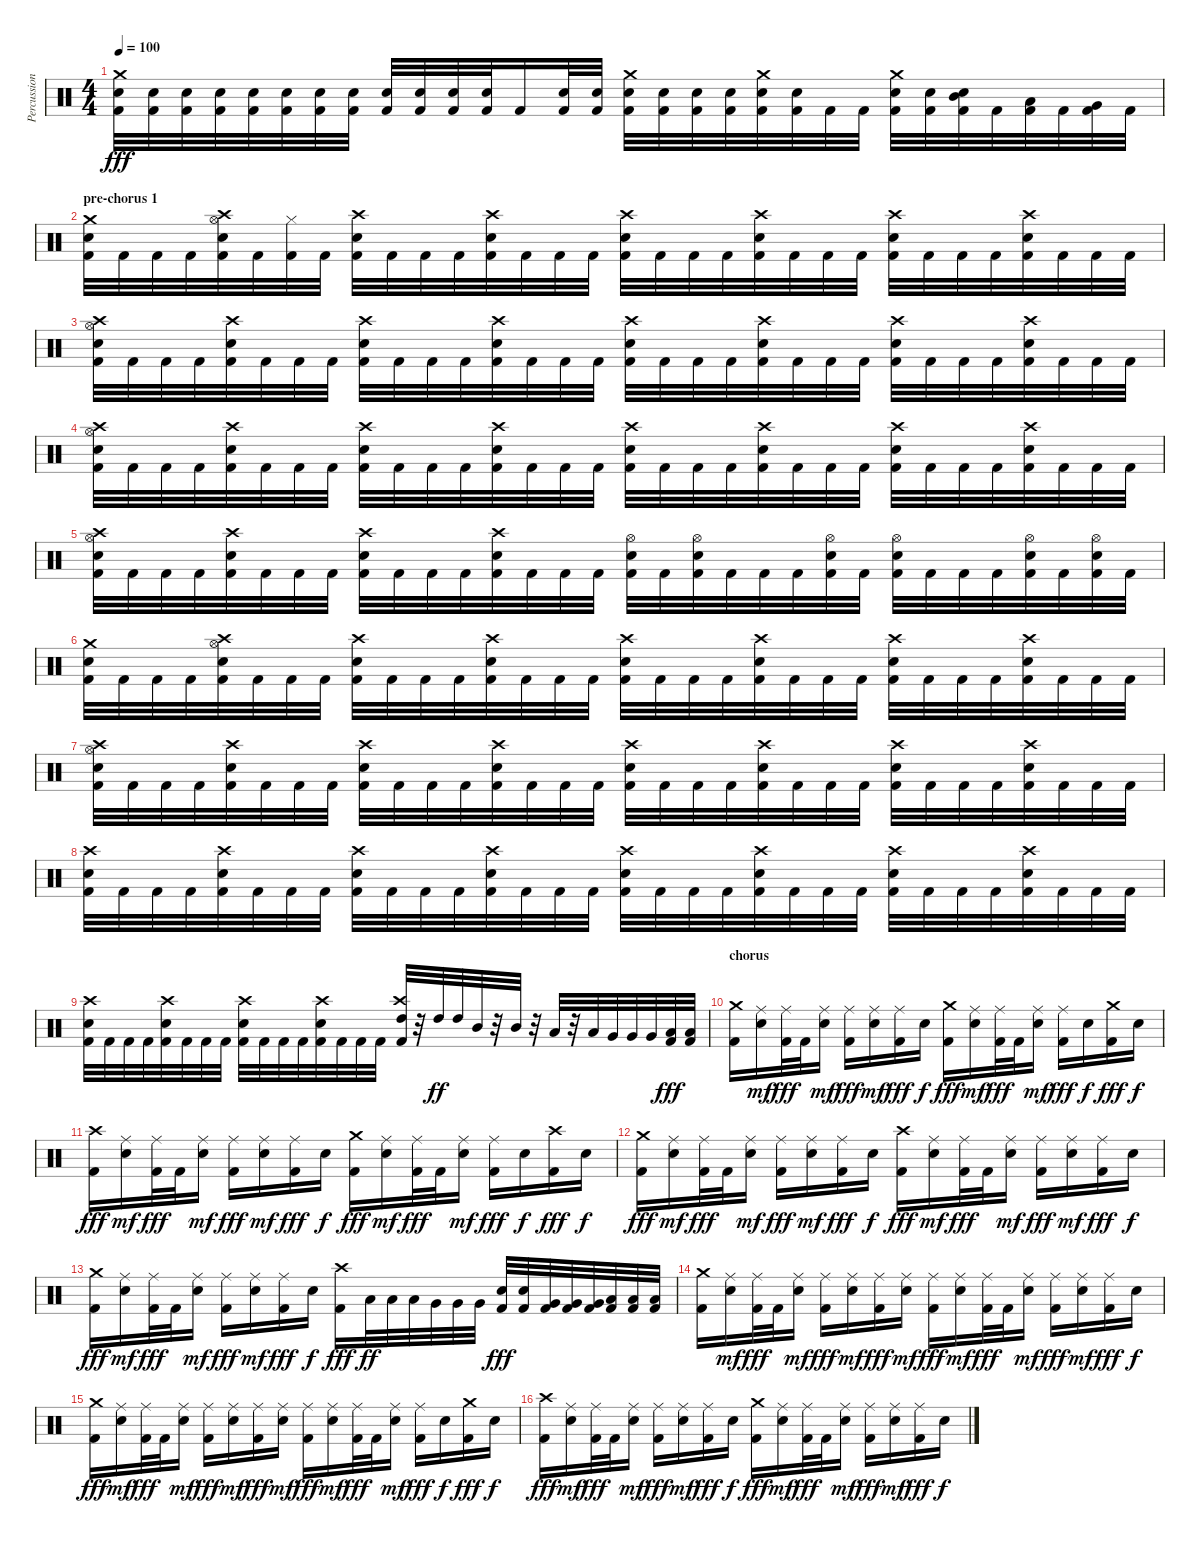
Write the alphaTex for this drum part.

\track ("Percussion" "Percussion") {instrument percussion}
\staff {score}
\articulation defaults
\ts (4 4)
\tempo 100
\clef neutral
\ks c
("Crash medium (hit)" "Snare (hit) 2" "Kick (hit) 2").32{dy fff} ("Snare (hit) 2" "Kick (hit) 2").32 ("Snare (hit) 2" "Kick (hit) 2").32 ("Snare (hit) 2" "Kick (hit) 2").32 ("Snare (hit) 2" "Kick (hit) 2").32 ("Snare (hit) 2" "Kick (hit) 2").32 ("Snare (hit) 2" "Kick (hit) 2").32 ("Snare (hit) 2" "Kick (hit) 2").32 ("Snare (hit) 2" "Kick (hit) 2").32 ("Snare (hit) 2" "Kick (hit) 2").32 ("Snare (hit) 2" "Kick (hit) 2").32 ("Snare (hit) 2" "Kick (hit) 2").32 "Kick (hit) 2".16 ("Snare (hit) 2" "Kick (hit) 2").32 ("Snare (hit) 2" "Kick (hit) 2").32 ("Crash medium (hit)" "Snare (hit) 2" "Kick (hit) 2").32 ("Snare (hit) 2" "Kick (hit) 2").32 ("Snare (hit) 2" "Kick (hit) 2").32 ("Snare (hit) 2" "Kick (hit) 2").32 ("Crash medium (hit)" "Snare (hit) 2" "Kick (hit) 2").32 ("Snare (hit) 2" "Kick (hit) 2").32 "Kick (hit) 2".32 "Kick (hit) 2".32 ("Crash medium (hit)" "Snare (hit) 2" "Kick (hit) 2").32 ("Snare (hit) 2" "Kick (hit) 2").32 ("Mid Tom (hit)" "Snare (hit) 2" "Kick (hit) 2").32 "Kick (hit) 2".32 ("Low Tom (hit)" "Kick (hit) 2").32 "Kick (hit) 2".32 ("Very Low Tom (hit)" "Kick (hit) 2").32 "Kick (hit) 2".32 |
\section ("" "pre-chorus 1")
("Crash medium (hit)" "Snare (hit) 2" "Kick (hit) 2").32 "Kick (hit) 2".32 "Kick (hit) 2".32 "Kick (hit) 2".32 ("Hi-Hat (open)" "Crash high (hit)" "Snare (hit) 2" "Kick (hit) 2").32 "Kick (hit) 2".32 ("Hi-Hat (closed)" "Kick (hit) 2").32 "Kick (hit) 2".32 ("Crash high (hit)" "Snare (hit) 2" "Kick (hit) 2").32 "Kick (hit) 2".32 "Kick (hit) 2".32 "Kick (hit) 2".32 ("Crash high (hit)" "Snare (hit) 2" "Kick (hit) 2").32 "Kick (hit) 2".32 "Kick (hit) 2".32 "Kick (hit) 2".32 ("Crash high (hit)" "Snare (hit) 2" "Kick (hit) 2").32 "Kick (hit) 2".32 "Kick (hit) 2".32 "Kick (hit) 2".32 ("Crash high (hit)" "Snare (hit) 2" "Kick (hit) 2").32 "Kick (hit) 2".32 "Kick (hit) 2".32 "Kick (hit) 2".32 ("Crash high (hit)" "Snare (hit) 2" "Kick (hit) 2").32 "Kick (hit) 2".32 "Kick (hit) 2".32 "Kick (hit) 2".32 ("Crash high (hit)" "Snare (hit) 2" "Kick (hit) 2").32 "Kick (hit) 2".32 "Kick (hit) 2".32 "Kick (hit) 2".32 |
("Hi-Hat (open)" "Crash high (hit)" "Snare (hit) 2" "Kick (hit) 2").32 "Kick (hit) 2".32 "Kick (hit) 2".32 "Kick (hit) 2".32 ("Crash high (hit)" "Snare (hit) 2" "Kick (hit) 2").32 "Kick (hit) 2".32 "Kick (hit) 2".32 "Kick (hit) 2".32 ("Crash high (hit)" "Snare (hit) 2" "Kick (hit) 2").32 "Kick (hit) 2".32 "Kick (hit) 2".32 "Kick (hit) 2".32 ("Crash high (hit)" "Snare (hit) 2" "Kick (hit) 2").32 "Kick (hit) 2".32 "Kick (hit) 2".32 "Kick (hit) 2".32 ("Crash high (hit)" "Snare (hit) 2" "Kick (hit) 2").32 "Kick (hit) 2".32 "Kick (hit) 2".32 "Kick (hit) 2".32 ("Crash high (hit)" "Snare (hit) 2" "Kick (hit) 2").32 "Kick (hit) 2".32 "Kick (hit) 2".32 "Kick (hit) 2".32 ("Crash high (hit)" "Snare (hit) 2" "Kick (hit) 2").32 "Kick (hit) 2".32 "Kick (hit) 2".32 "Kick (hit) 2".32 ("Crash high (hit)" "Snare (hit) 2" "Kick (hit) 2").32 "Kick (hit) 2".32 "Kick (hit) 2".32 "Kick (hit) 2".32 |
("Hi-Hat (open)" "Crash high (hit)" "Snare (hit) 2" "Kick (hit) 2").32 "Kick (hit) 2".32 "Kick (hit) 2".32 "Kick (hit) 2".32 ("Crash high (hit)" "Snare (hit) 2" "Kick (hit) 2").32 "Kick (hit) 2".32 "Kick (hit) 2".32 "Kick (hit) 2".32 ("Crash high (hit)" "Snare (hit) 2" "Kick (hit) 2").32 "Kick (hit) 2".32 "Kick (hit) 2".32 "Kick (hit) 2".32 ("Crash high (hit)" "Snare (hit) 2" "Kick (hit) 2").32 "Kick (hit) 2".32 "Kick (hit) 2".32 "Kick (hit) 2".32 ("Crash high (hit)" "Snare (hit) 2" "Kick (hit) 2").32 "Kick (hit) 2".32 "Kick (hit) 2".32 "Kick (hit) 2".32 ("Crash high (hit)" "Snare (hit) 2" "Kick (hit) 2").32 "Kick (hit) 2".32 "Kick (hit) 2".32 "Kick (hit) 2".32 ("Crash high (hit)" "Snare (hit) 2" "Kick (hit) 2").32 "Kick (hit) 2".32 "Kick (hit) 2".32 "Kick (hit) 2".32 ("Crash high (hit)" "Snare (hit) 2" "Kick (hit) 2").32 "Kick (hit) 2".32 "Kick (hit) 2".32 "Kick (hit) 2".32 |
("Hi-Hat (open)" "Crash high (hit)" "Snare (hit) 2" "Kick (hit) 2").32 "Kick (hit) 2".32 "Kick (hit) 2".32 "Kick (hit) 2".32 ("Crash high (hit)" "Snare (hit) 2" "Kick (hit) 2").32 "Kick (hit) 2".32 "Kick (hit) 2".32 "Kick (hit) 2".32 ("Crash high (hit)" "Snare (hit) 2" "Kick (hit) 2").32 "Kick (hit) 2".32 "Kick (hit) 2".32 "Kick (hit) 2".32 ("Crash high (hit)" "Snare (hit) 2" "Kick (hit) 2").32 "Kick (hit) 2".32 "Kick (hit) 2".32 "Kick (hit) 2".32 ("Hi-Hat (open)" "Snare (hit) 2" "Kick (hit) 2").32 "Kick (hit) 2".32 ("Hi-Hat (open)" "Snare (hit) 2" "Kick (hit) 2").32 "Kick (hit) 2".32 "Kick (hit) 2".32 "Kick (hit) 2".32 ("Hi-Hat (open)" "Snare (hit) 2" "Kick (hit) 2").32 "Kick (hit) 2".32 ("Hi-Hat (open)" "Snare (hit) 2" "Kick (hit) 2").32 "Kick (hit) 2".32 "Kick (hit) 2".32 "Kick (hit) 2".32 ("Hi-Hat (open)" "Snare (hit) 2" "Kick (hit) 2").32 "Kick (hit) 2".32 ("Hi-Hat (open)" "Snare (hit) 2" "Kick (hit) 2").32 "Kick (hit) 2".32 |
("Crash medium (hit)" "Snare (hit) 2" "Kick (hit) 2").32 "Kick (hit) 2".32 "Kick (hit) 2".32 "Kick (hit) 2".32 ("Hi-Hat (open)" "Crash high (hit)" "Snare (hit) 2" "Kick (hit) 2").32 "Kick (hit) 2".32 "Kick (hit) 2".32 "Kick (hit) 2".32 ("Crash high (hit)" "Snare (hit) 2" "Kick (hit) 2").32 "Kick (hit) 2".32 "Kick (hit) 2".32 "Kick (hit) 2".32 ("Crash high (hit)" "Snare (hit) 2" "Kick (hit) 2").32 "Kick (hit) 2".32 "Kick (hit) 2".32 "Kick (hit) 2".32 ("Crash high (hit)" "Snare (hit) 2" "Kick (hit) 2").32 "Kick (hit) 2".32 "Kick (hit) 2".32 "Kick (hit) 2".32 ("Crash high (hit)" "Snare (hit) 2" "Kick (hit) 2").32 "Kick (hit) 2".32 "Kick (hit) 2".32 "Kick (hit) 2".32 ("Crash high (hit)" "Snare (hit) 2" "Kick (hit) 2").32 "Kick (hit) 2".32 "Kick (hit) 2".32 "Kick (hit) 2".32 ("Crash high (hit)" "Snare (hit) 2" "Kick (hit) 2").32 "Kick (hit) 2".32 "Kick (hit) 2".32 "Kick (hit) 2".32 |
("Hi-Hat (open)" "Crash high (hit)" "Snare (hit) 2" "Kick (hit) 2").32 "Kick (hit) 2".32 "Kick (hit) 2".32 "Kick (hit) 2".32 ("Crash high (hit)" "Snare (hit) 2" "Kick (hit) 2").32 "Kick (hit) 2".32 "Kick (hit) 2".32 "Kick (hit) 2".32 ("Crash high (hit)" "Snare (hit) 2" "Kick (hit) 2").32 "Kick (hit) 2".32 "Kick (hit) 2".32 "Kick (hit) 2".32 ("Crash high (hit)" "Snare (hit) 2" "Kick (hit) 2").32 "Kick (hit) 2".32 "Kick (hit) 2".32 "Kick (hit) 2".32 ("Crash high (hit)" "Snare (hit) 2" "Kick (hit) 2").32 "Kick (hit) 2".32 "Kick (hit) 2".32 "Kick (hit) 2".32 ("Crash high (hit)" "Snare (hit) 2" "Kick (hit) 2").32 "Kick (hit) 2".32 "Kick (hit) 2".32 "Kick (hit) 2".32 ("Crash high (hit)" "Snare (hit) 2" "Kick (hit) 2").32 "Kick (hit) 2".32 "Kick (hit) 2".32 "Kick (hit) 2".32 ("Crash high (hit)" "Snare (hit) 2" "Kick (hit) 2").32 "Kick (hit) 2".32 "Kick (hit) 2".32 "Kick (hit) 2".32 |
("Crash high (hit)" "Snare (hit) 2" "Kick (hit) 2").32 "Kick (hit) 2".32 "Kick (hit) 2".32 "Kick (hit) 2".32 ("Crash high (hit)" "Snare (hit) 2" "Kick (hit) 2").32 "Kick (hit) 2".32 "Kick (hit) 2".32 "Kick (hit) 2".32 ("Crash high (hit)" "Snare (hit) 2" "Kick (hit) 2").32 "Kick (hit) 2".32 "Kick (hit) 2".32 "Kick (hit) 2".32 ("Crash high (hit)" "Snare (hit) 2" "Kick (hit) 2").32 "Kick (hit) 2".32 "Kick (hit) 2".32 "Kick (hit) 2".32 ("Crash high (hit)" "Snare (hit) 2" "Kick (hit) 2").32 "Kick (hit) 2".32 "Kick (hit) 2".32 "Kick (hit) 2".32 ("Crash high (hit)" "Snare (hit) 2" "Kick (hit) 2").32 "Kick (hit) 2".32 "Kick (hit) 2".32 "Kick (hit) 2".32 ("Crash high (hit)" "Snare (hit) 2" "Kick (hit) 2").32 "Kick (hit) 2".32 "Kick (hit) 2".32 "Kick (hit) 2".32 ("Crash high (hit)" "Snare (hit) 2" "Kick (hit) 2").32 "Kick (hit) 2".32 "Kick (hit) 2".32 "Kick (hit) 2".32 |
("Crash high (hit)" "Snare (hit) 2" "Kick (hit) 2").32 "Kick (hit) 2".32 "Kick (hit) 2".32 "Kick (hit) 2".32 ("Crash high (hit)" "Snare (hit) 2" "Kick (hit) 2").32 "Kick (hit) 2".32 "Kick (hit) 2".32 "Kick (hit) 2".32 ("Crash high (hit)" "Snare (hit) 2" "Kick (hit) 2").32 "Kick (hit) 2".32 "Kick (hit) 2".32 "Kick (hit) 2".32 ("Crash high (hit)" "Snare (hit) 2" "Kick (hit) 2").32 "Kick (hit) 2".32 "Kick (hit) 2".32 "Kick (hit) 2".32 ("Crash high (hit)" "High Tom (hit)" "Kick (hit) 2").32 r.32 "High Tom (hit)".32{dy ff} "High Tom (hit)".32 "Mid Tom (hit)".32 r.32 "Mid Tom (hit)".32 r.32 "Low Tom (hit)".32 r.32 "Low Tom (hit)".32 "Very Low Tom (hit)".32 "Very Low Tom (hit)".32 "Very Low Tom (hit)".32 ("Low Floor Tom (hit)" "Kick (hit) 2").32{dy fff} ("Low Floor Tom (hit)" "Kick (hit) 2").32 |
\section ("" "chorus")
("Crash medium (hit)" "Kick (hit) 2").16 ("Ride (middle)" "Snare (hit) 2").16{dy mf} ("Ride (middle)" "Kick (hit) 2").32{dy fff} "Kick (hit) 2".32 ("Ride (middle)" "Snare (hit) 2").16{dy mf} ("Ride (middle)" "Kick (hit) 2").16{dy fff} ("Ride (middle)" "Snare (hit) 2").16{dy mf} ("Ride (middle)" "Kick (hit) 2").16{dy fff} "Snare (hit) 2".16{dy f} ("Crash medium (hit)" "Kick (hit) 2").16{dy fff} ("Ride (middle)" "Snare (hit) 2").16{dy mf} ("Ride (middle)" "Kick (hit) 2").32{dy fff} "Kick (hit) 2".32 ("Ride (middle)" "Snare (hit) 2").16{dy mf} ("Ride (middle)" "Kick (hit) 2").16{dy fff} "Snare (hit) 2".16{dy f} ("Crash medium (hit)" "Kick (hit) 2").16{dy fff} "Snare (hit) 2".16{dy f} |
("Crash high (hit)" "Kick (hit) 2").16{dy fff} ("Ride (middle)" "Snare (hit) 2").16{dy mf} ("Ride (middle)" "Kick (hit) 2").32{dy fff} "Kick (hit) 2".32 ("Ride (middle)" "Snare (hit) 2").16{dy mf} ("Ride (middle)" "Kick (hit) 2").16{dy fff} ("Ride (middle)" "Snare (hit) 2").16{dy mf} ("Ride (middle)" "Kick (hit) 2").16{dy fff} "Snare (hit) 2".16{dy f} ("Crash medium (hit)" "Kick (hit) 2").16{dy fff} ("Ride (middle)" "Snare (hit) 2").16{dy mf} ("Ride (middle)" "Kick (hit) 2").32{dy fff} "Kick (hit) 2".32 ("Ride (middle)" "Snare (hit) 2").16{dy mf} ("Ride (middle)" "Kick (hit) 2").16{dy fff} "Snare (hit) 2".16{dy f} ("Crash high (hit)" "Kick (hit) 2").16{dy fff} "Snare (hit) 2".16{dy f} |
("Crash medium (hit)" "Kick (hit) 2").16{dy fff} ("Ride (middle)" "Snare (hit) 2").16{dy mf} ("Ride (middle)" "Kick (hit) 2").32{dy fff} "Kick (hit) 2".32 ("Ride (middle)" "Snare (hit) 2").16{dy mf} ("Ride (middle)" "Kick (hit) 2").16{dy fff} ("Ride (middle)" "Snare (hit) 2").16{dy mf} ("Ride (middle)" "Kick (hit) 2").16{dy fff} "Snare (hit) 2".16{dy f} ("Crash high (hit)" "Kick (hit) 2").16{dy fff} ("Ride (middle)" "Snare (hit) 2").16{dy mf} ("Ride (middle)" "Kick (hit) 2").32{dy fff} "Kick (hit) 2".32 ("Ride (middle)" "Snare (hit) 2").16{dy mf} ("Ride (middle)" "Kick (hit) 2").16{dy fff} ("Ride (middle)" "Snare (hit) 2").16{dy mf} ("Ride (middle)" "Kick (hit) 2").16{dy fff} "Snare (hit) 2".16{dy f} |
("Crash medium (hit)" "Kick (hit) 2").16{dy fff} ("Ride (middle)" "Snare (hit) 2").16{dy mf} ("Ride (middle)" "Kick (hit) 2").32{dy fff} "Kick (hit) 2".32 ("Ride (middle)" "Snare (hit) 2").16{dy mf} ("Ride (middle)" "Kick (hit) 2").16{dy fff} ("Ride (middle)" "Snare (hit) 2").16{dy mf} ("Ride (middle)" "Kick (hit) 2").16{dy fff} "Snare (hit) 2".16{dy f} ("Crash high (hit)" "Kick (hit) 2").16{dy fff} "Low Tom (hit)".32{dy ff} "Low Tom (hit)".32 "Low Tom (hit)".32 "Very Low Tom (hit)".32 "Very Low Tom (hit)".32 "Very Low Tom (hit)".32 ("Snare (hit) 2" "Kick (hit) 2").32{dy fff} ("Snare (hit) 2" "Kick (hit) 2").32 ("Very Low Tom (hit)" "Kick (hit) 2").32 ("Very Low Tom (hit)" "Kick (hit) 2").32 ("Very Low Tom (hit)" "Kick (hit) 2").32 ("Low Floor Tom (hit)" "Kick (hit) 2").32 ("Low Floor Tom (hit)" "Kick (hit) 2").32 ("Low Floor Tom (hit)" "Kick (hit) 2").32 |
("Crash medium (hit)" "Kick (hit) 2").16 ("Ride (middle)" "Snare (hit) 2").16{dy mf} ("Ride (middle)" "Kick (hit) 2").32{dy fff} "Kick (hit) 2".32 ("Ride (middle)" "Snare (hit) 2").16{dy mf} ("Ride (middle)" "Kick (hit) 2").16{dy fff} ("Ride (middle)" "Snare (hit) 2").16{dy mf} ("Ride (middle)" "Kick (hit) 2").16{dy fff} ("Ride (middle)" "Snare (hit) 2").16{dy mf} ("Ride (middle)" "Kick (hit) 2").16{dy fff} ("Ride (middle)" "Snare (hit) 2").16{dy mf} ("Ride (middle)" "Kick (hit) 2").32{dy fff} "Kick (hit) 2".32 ("Ride (middle)" "Snare (hit) 2").16{dy mf} ("Ride (middle)" "Kick (hit) 2").16{dy fff} ("Ride (middle)" "Snare (hit) 2").16{dy mf} ("Ride (middle)" "Kick (hit) 2").16{dy fff} "Snare (hit) 2".16{dy f} |
("Crash medium (hit)" "Kick (hit) 2").16{dy fff} ("Ride (middle)" "Snare (hit) 2").16{dy mf} ("Ride (middle)" "Kick (hit) 2").32{dy fff} "Kick (hit) 2".32 ("Ride (middle)" "Snare (hit) 2").16{dy mf} ("Ride (middle)" "Kick (hit) 2").16{dy fff} ("Ride (middle)" "Snare (hit) 2").16{dy mf} ("Ride (middle)" "Kick (hit) 2").16{dy fff} ("Ride (middle)" "Snare (hit) 2").16{dy mf} ("Ride (middle)" "Kick (hit) 2").16{dy fff} ("Ride (middle)" "Snare (hit) 2").16{dy mf} ("Ride (middle)" "Kick (hit) 2").32{dy fff} "Kick (hit) 2".32 ("Ride (middle)" "Snare (hit) 2").16{dy mf} ("Ride (middle)" "Kick (hit) 2").16{dy fff} "Snare (hit) 2".16{dy f} ("Crash medium (hit)" "Kick (hit) 2").16{dy fff} "Snare (hit) 2".16{dy f} |
("Crash high (hit)" "Kick (hit) 2").16{dy fff} ("Ride (middle)" "Snare (hit) 2").16{dy mf} ("Ride (middle)" "Kick (hit) 2").32{dy fff} "Kick (hit) 2".32 ("Ride (middle)" "Snare (hit) 2").16{dy mf} ("Ride (middle)" "Kick (hit) 2").16{dy fff} ("Ride (middle)" "Snare (hit) 2").16{dy mf} ("Ride (middle)" "Kick (hit) 2").16{dy fff} "Snare (hit) 2".16{dy f} ("Crash medium (hit)" "Kick (hit) 2").16{dy fff} ("Ride (middle)" "Snare (hit) 2").16{dy mf} ("Ride (middle)" "Kick (hit) 2").32{dy fff} "Kick (hit) 2".32 ("Ride (middle)" "Snare (hit) 2").16{dy mf} ("Ride (middle)" "Kick (hit) 2").16{dy fff} ("Ride (middle)" "Snare (hit) 2").16{dy mf} ("Ride (middle)" "Kick (hit) 2").16{dy fff} "Snare (hit) 2".16{dy f}
